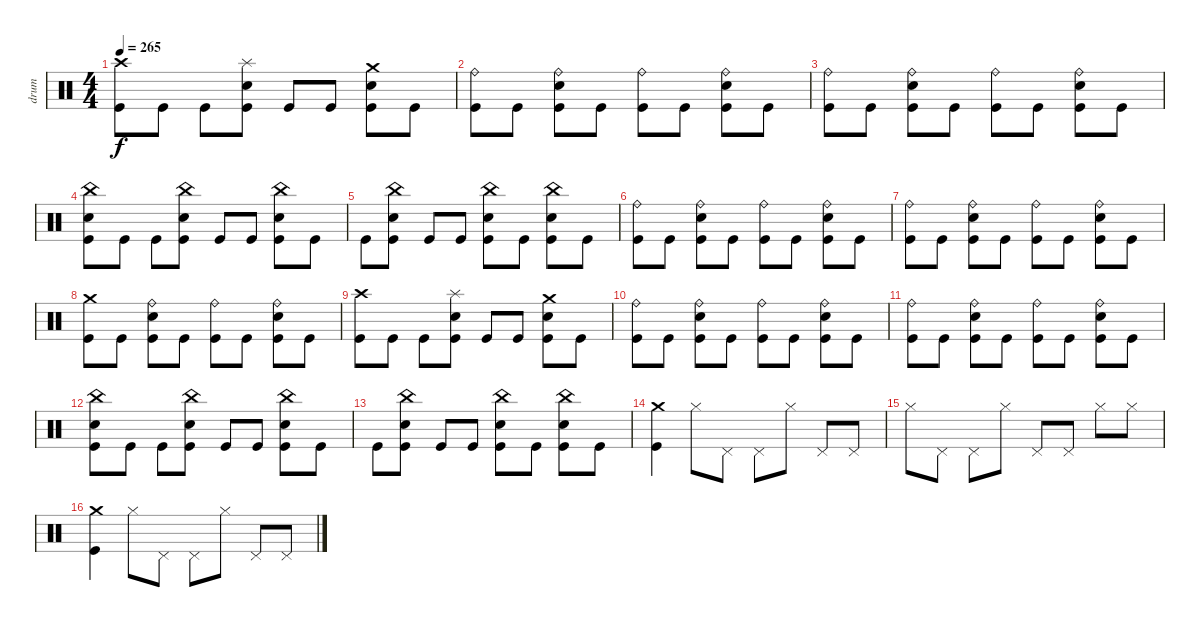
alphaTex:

\track ("drum" "drum") {instrument percussion}
\staff {score}
\articulation defaults
\ts (4 4)
\tempo 265
\clef neutral
\ks c
("Kick (hit)" "Crash high (hit)").8{dy f} "Kick (hit)".8 "Kick (hit)".8 ("Kick (hit)" "Electric Snare (hit)" "Splash (hit)").8 "Kick (hit)".8 "Kick (hit)".8 ("Kick (hit)" "Electric Snare (hit)" "Crash medium (hit)").8 "Kick (hit)".8 |
("Kick (hit)" "Ride (bell)").8 "Kick (hit)".8 ("Kick (hit)" "Electric Snare (hit)" "Ride (bell)").8 "Kick (hit)".8 ("Kick (hit)" "Ride (bell)").8 "Kick (hit)".8 ("Kick (hit)" "Electric Snare (hit)" "Ride (bell)").8 "Kick (hit)".8 |
("Kick (hit)" "Ride (bell)").8 "Kick (hit)".8 ("Kick (hit)" "Electric Snare (hit)" "Ride (bell)").8 "Kick (hit)".8 ("Kick (hit)" "Ride (bell)").8 "Kick (hit)".8 ("Kick (hit)" "Electric Snare (hit)" "Ride (bell)").8 "Kick (hit)".8 |
("Kick (hit)" "Electric Snare (hit)" "China (hit)").8 "Kick (hit)".8 "Kick (hit)".8 ("Kick (hit)" "Electric Snare (hit)" "China (hit)").8 "Kick (hit)".8 "Kick (hit)".8 ("Kick (hit)" "Electric Snare (hit)" "China (hit)").8 "Kick (hit)".8 |
"Kick (hit)".8 ("Kick (hit)" "Electric Snare (hit)" "China (hit)").8 "Kick (hit)".8 "Kick (hit)".8 ("Kick (hit)" "Electric Snare (hit)" "China (hit)").8 "Kick (hit)".8 ("Kick (hit)" "Electric Snare (hit)" "China (hit)").8 "Kick (hit)".8 |
("Kick (hit)" "Ride (bell)").8 "Kick (hit)".8 ("Kick (hit)" "Electric Snare (hit)" "Ride (bell)").8 "Kick (hit)".8 ("Kick (hit)" "Ride (bell)").8 "Kick (hit)".8 ("Kick (hit)" "Electric Snare (hit)" "Ride (bell)").8 "Kick (hit)".8 |
("Kick (hit)" "Ride (bell)").8 "Kick (hit)".8 ("Kick (hit)" "Electric Snare (hit)" "Ride (bell)").8 "Kick (hit)".8 ("Kick (hit)" "Ride (bell)").8 "Kick (hit)".8 ("Kick (hit)" "Electric Snare (hit)" "Ride (bell)").8 "Kick (hit)".8 |
("Kick (hit)" "Crash medium (hit)").8 "Kick (hit)".8 ("Kick (hit)" "Electric Snare (hit)" "Ride (bell)").8 "Kick (hit)".8 ("Kick (hit)" "Ride (bell)").8 "Kick (hit)".8 ("Kick (hit)" "Electric Snare (hit)" "Ride (bell)").8 "Kick (hit)".8 |
("Kick (hit)" "Crash high (hit)").8 "Kick (hit)".8 "Kick (hit)".8 ("Kick (hit)" "Electric Snare (hit)" "Splash (hit)").8 "Kick (hit)".8 "Kick (hit)".8 ("Kick (hit)" "Electric Snare (hit)" "Crash medium (hit)").8 "Kick (hit)".8 |
("Kick (hit)" "Ride (bell)").8 "Kick (hit)".8 ("Kick (hit)" "Electric Snare (hit)" "Ride (bell)").8 "Kick (hit)".8 ("Kick (hit)" "Ride (bell)").8 "Kick (hit)".8 ("Kick (hit)" "Electric Snare (hit)" "Ride (bell)").8 "Kick (hit)".8 |
("Kick (hit)" "Ride (bell)").8 "Kick (hit)".8 ("Kick (hit)" "Electric Snare (hit)" "Ride (bell)").8 "Kick (hit)".8 ("Kick (hit)" "Ride (bell)").8 "Kick (hit)".8 ("Kick (hit)" "Electric Snare (hit)" "Ride (bell)").8 "Kick (hit)".8 |
("Kick (hit)" "Electric Snare (hit)" "China (hit)").8 "Kick (hit)".8 "Kick (hit)".8 ("Kick (hit)" "Electric Snare (hit)" "China (hit)").8 "Kick (hit)".8 "Kick (hit)".8 ("Kick (hit)" "Electric Snare (hit)" "China (hit)").8 "Kick (hit)".8 |
"Kick (hit)".8 ("Kick (hit)" "Electric Snare (hit)" "China (hit)").8 "Kick (hit)".8 "Kick (hit)".8 ("Kick (hit)" "Electric Snare (hit)" "China (hit)").8 "Kick (hit)".8 ("Kick (hit)" "Electric Snare (hit)" "China (hit)").8 "Kick (hit)".8 |
("Kick (hit)" "Crash medium (hit)").4 "Hi-Hat (closed)".8 "Pedal Hi-Hat (hit)".8 "Pedal Hi-Hat (hit)".8 "Hi-Hat (closed)".8 "Pedal Hi-Hat (hit)".8 "Pedal Hi-Hat (hit)".8 |
"Hi-Hat (closed)".8 "Pedal Hi-Hat (hit)".8 "Pedal Hi-Hat (hit)".8 "Hi-Hat (closed)".8 "Pedal Hi-Hat (hit)".8 "Pedal Hi-Hat (hit)".8 "Hi-Hat (closed)".8 "Hi-Hat (closed)".8 |
("Kick (hit)" "Crash medium (hit)").4 "Hi-Hat (closed)".8 "Pedal Hi-Hat (hit)".8 "Pedal Hi-Hat (hit)".8 "Hi-Hat (closed)".8 "Pedal Hi-Hat (hit)".8 "Pedal Hi-Hat (hit)".8
